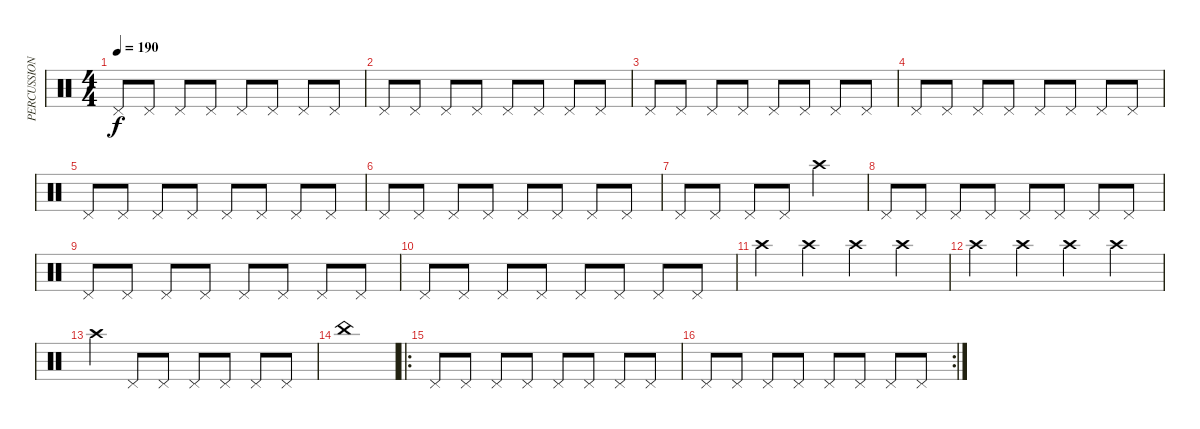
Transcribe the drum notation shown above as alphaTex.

\track ("PERCUSSION" "PERCUSSION") {instrument percussion}
\staff {score}
\articulation defaults
\ts (4 4)
\tempo 190
\clef neutral
\ks c "Pedal Hi-Hat (hit)".8{dy f} "Pedal Hi-Hat (hit)".8 "Pedal Hi-Hat (hit)".8 "Pedal Hi-Hat (hit)".8 "Pedal Hi-Hat (hit)".8 "Pedal Hi-Hat (hit)".8 "Pedal Hi-Hat (hit)".8 "Pedal Hi-Hat (hit)".8
|
"Pedal Hi-Hat (hit)".8 "Pedal Hi-Hat (hit)".8 "Pedal Hi-Hat (hit)".8 "Pedal Hi-Hat (hit)".8 "Pedal Hi-Hat (hit)".8 "Pedal Hi-Hat (hit)".8 "Pedal Hi-Hat (hit)".8 "Pedal Hi-Hat (hit)".8 |
"Pedal Hi-Hat (hit)".8 "Pedal Hi-Hat (hit)".8 "Pedal Hi-Hat (hit)".8 "Pedal Hi-Hat (hit)".8 "Pedal Hi-Hat (hit)".8 "Pedal Hi-Hat (hit)".8 "Pedal Hi-Hat (hit)".8 "Pedal Hi-Hat (hit)".8 |
"Pedal Hi-Hat (hit)".8 "Pedal Hi-Hat (hit)".8 "Pedal Hi-Hat (hit)".8 "Pedal Hi-Hat (hit)".8 "Pedal Hi-Hat (hit)".8 "Pedal Hi-Hat (hit)".8 "Pedal Hi-Hat (hit)".8 "Pedal Hi-Hat (hit)".8 |
"Pedal Hi-Hat (hit)".8 "Pedal Hi-Hat (hit)".8 "Pedal Hi-Hat (hit)".8 "Pedal Hi-Hat (hit)".8 "Pedal Hi-Hat (hit)".8 "Pedal Hi-Hat (hit)".8 "Pedal Hi-Hat (hit)".8 "Pedal Hi-Hat (hit)".8 |
"Pedal Hi-Hat (hit)".8 "Pedal Hi-Hat (hit)".8 "Pedal Hi-Hat (hit)".8 "Pedal Hi-Hat (hit)".8 "Pedal Hi-Hat (hit)".8 "Pedal Hi-Hat (hit)".8 "Pedal Hi-Hat (hit)".8 "Pedal Hi-Hat (hit)".8 |
"Pedal Hi-Hat (hit)".8 "Pedal Hi-Hat (hit)".8 "Pedal Hi-Hat (hit)".8 "Pedal Hi-Hat (hit)".8 "Crash high (hit)".2 |
"Pedal Hi-Hat (hit)".8 "Pedal Hi-Hat (hit)".8 "Pedal Hi-Hat (hit)".8 "Pedal Hi-Hat (hit)".8 "Pedal Hi-Hat (hit)".8 "Pedal Hi-Hat (hit)".8 "Pedal Hi-Hat (hit)".8 "Pedal Hi-Hat (hit)".8 |
"Pedal Hi-Hat (hit)".8 "Pedal Hi-Hat (hit)".8 "Pedal Hi-Hat (hit)".8 "Pedal Hi-Hat (hit)".8 "Pedal Hi-Hat (hit)".8 "Pedal Hi-Hat (hit)".8 "Pedal Hi-Hat (hit)".8 "Pedal Hi-Hat (hit)".8 |
"Pedal Hi-Hat (hit)".8 "Pedal Hi-Hat (hit)".8 "Pedal Hi-Hat (hit)".8 "Pedal Hi-Hat (hit)".8 "Pedal Hi-Hat (hit)".8 "Pedal Hi-Hat (hit)".8 "Pedal Hi-Hat (hit)".8 "Pedal Hi-Hat (hit)".8 |
"Crash high (hit)".4 "Crash high (hit)".4 "Crash high (hit)".4 "Crash high (hit)".4 |
"Crash high (hit)".4 "Crash high (hit)".4 "Crash high (hit)".4 "Crash high (hit)".4 |
"Crash high (hit)".4 "Pedal Hi-Hat (hit)".8 "Pedal Hi-Hat (hit)".8 "Pedal Hi-Hat (hit)".8 "Pedal Hi-Hat (hit)".8 "Pedal Hi-Hat (hit)".8 "Pedal Hi-Hat (hit)".8 |
"China (hit)".1 |
\ro "Pedal Hi-Hat (hit)".8 "Pedal Hi-Hat (hit)".8 "Pedal Hi-Hat (hit)".8 "Pedal Hi-Hat (hit)".8 "Pedal Hi-Hat (hit)".8 "Pedal Hi-Hat (hit)".8 "Pedal Hi-Hat (hit)".8 "Pedal Hi-Hat (hit)".8
|
\rc 2 "Pedal Hi-Hat (hit)".8 "Pedal Hi-Hat (hit)".8 "Pedal Hi-Hat (hit)".8 "Pedal Hi-Hat (hit)".8 "Pedal Hi-Hat (hit)".8 "Pedal Hi-Hat (hit)".8 "Pedal Hi-Hat (hit)".8 "Pedal Hi-Hat (hit)".8
